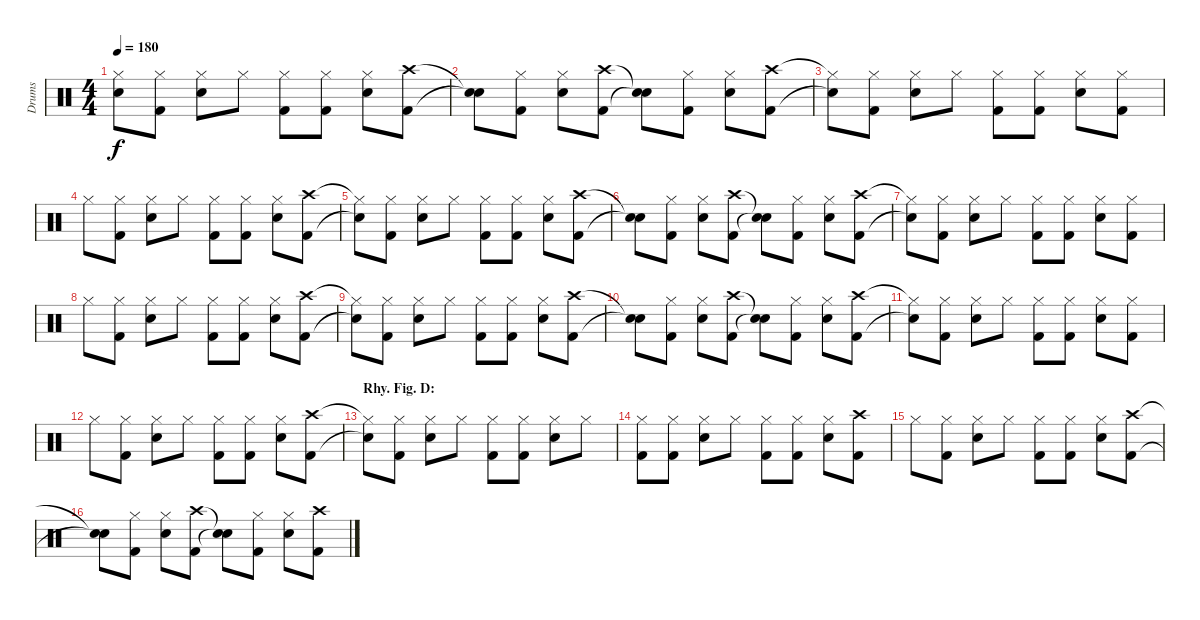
\track ("Drums" "Drums") {instrument percussion}
\staff {score}
\articulation defaults
\ts (4 4)
\tempo 180
\clef neutral
\ks c
("Hi-Hat (closed)"{t} "Snare (hit)"{t}).8{dy f} ("Hi-Hat (closed)" "Kick (hit) 2").8 ("Hi-Hat (closed)" "Snare (hit) 2").8 "Hi-Hat (closed)".8 ("Hi-Hat (closed)" "Kick (hit) 2").8 ("Hi-Hat (closed)" "Kick (hit) 2").8 ("Hi-Hat (closed)" "Snare (hit) 2").8 ("Crash high (hit)" "Kick (hit) 2").8 |
("Snare (hit)"{t} "Snare (hit)"{t}).8 ("Hi-Hat (closed)" "Kick (hit) 2").8 ("Hi-Hat (closed)" "Snare (hit) 2").8 ("Crash high (hit)" "Kick (hit) 2").8 ("Snare (hit)"{t} "Snare (hit)"{t}).8 ("Hi-Hat (closed)" "Kick (hit) 2").8 ("Hi-Hat (closed)" "Snare (hit) 2").8 ("Crash high (hit)" "Kick (hit) 2").8 |
("Hi-Hat (closed)"{t} "Snare (hit)"{t}).8 ("Hi-Hat (closed)" "Kick (hit) 2").8 ("Hi-Hat (closed)" "Snare (hit) 2").8 "Hi-Hat (closed)".8 ("Hi-Hat (closed)" "Kick (hit) 2").8 ("Hi-Hat (closed)" "Kick (hit) 2").8 ("Hi-Hat (closed)" "Snare (hit) 2").8 ("Hi-Hat (closed)" "Kick (hit) 2").8 |
"Hi-Hat (closed)".8 ("Hi-Hat (closed)" "Kick (hit) 2").8 ("Hi-Hat (closed)" "Snare (hit) 2").8 "Hi-Hat (closed)".8 ("Hi-Hat (closed)" "Kick (hit) 2").8 ("Hi-Hat (closed)" "Kick (hit) 2").8 ("Hi-Hat (closed)" "Snare (hit) 2").8 ("Crash high (hit)" "Kick (hit) 2").8 |
("Hi-Hat (closed)"{t} "Snare (hit)"{t}).8 ("Hi-Hat (closed)" "Kick (hit) 2").8 ("Hi-Hat (closed)" "Snare (hit) 2").8 "Hi-Hat (closed)".8 ("Hi-Hat (closed)" "Kick (hit) 2").8 ("Hi-Hat (closed)" "Kick (hit) 2").8 ("Hi-Hat (closed)" "Snare (hit) 2").8 ("Crash high (hit)" "Kick (hit) 2").8 |
("Snare (hit)"{t} "Snare (hit)"{t}).8 ("Hi-Hat (closed)" "Kick (hit) 2").8 ("Hi-Hat (closed)" "Snare (hit) 2").8 ("Crash high (hit)" "Kick (hit) 2").8 ("Snare (hit)"{t} "Snare (hit)"{t}).8 ("Hi-Hat (closed)" "Kick (hit) 2").8 ("Hi-Hat (closed)" "Snare (hit) 2").8 ("Crash high (hit)" "Kick (hit) 2").8 |
("Hi-Hat (closed)"{t} "Snare (hit)"{t}).8 ("Hi-Hat (closed)" "Kick (hit) 2").8 ("Hi-Hat (closed)" "Snare (hit) 2").8 "Hi-Hat (closed)".8 ("Hi-Hat (closed)" "Kick (hit) 2").8 ("Hi-Hat (closed)" "Kick (hit) 2").8 ("Hi-Hat (closed)" "Snare (hit) 2").8 ("Hi-Hat (closed)" "Kick (hit) 2").8 |
"Hi-Hat (closed)".8 ("Hi-Hat (closed)" "Kick (hit) 2").8 ("Hi-Hat (closed)" "Snare (hit) 2").8 "Hi-Hat (closed)".8 ("Hi-Hat (closed)" "Kick (hit) 2").8 ("Hi-Hat (closed)" "Kick (hit) 2").8 ("Hi-Hat (closed)" "Snare (hit) 2").8 ("Crash high (hit)" "Kick (hit) 2").8 |
("Hi-Hat (closed)"{t} "Snare (hit)"{t}).8 ("Hi-Hat (closed)" "Kick (hit) 2").8 ("Hi-Hat (closed)" "Snare (hit) 2").8 "Hi-Hat (closed)".8 ("Hi-Hat (closed)" "Kick (hit) 2").8 ("Hi-Hat (closed)" "Kick (hit) 2").8 ("Hi-Hat (closed)" "Snare (hit) 2").8 ("Crash high (hit)" "Kick (hit) 2").8 |
("Snare (hit)"{t} "Snare (hit)"{t}).8 ("Hi-Hat (closed)" "Kick (hit) 2").8 ("Hi-Hat (closed)" "Snare (hit) 2").8 ("Crash high (hit)" "Kick (hit) 2").8 ("Snare (hit)"{t} "Snare (hit)"{t}).8 ("Hi-Hat (closed)" "Kick (hit) 2").8 ("Hi-Hat (closed)" "Snare (hit) 2").8 ("Crash high (hit)" "Kick (hit) 2").8 |
("Hi-Hat (closed)"{t} "Snare (hit)"{t}).8 ("Hi-Hat (closed)" "Kick (hit) 2").8 ("Hi-Hat (closed)" "Snare (hit) 2").8 "Hi-Hat (closed)".8 ("Hi-Hat (closed)" "Kick (hit) 2").8 ("Hi-Hat (closed)" "Kick (hit) 2").8 ("Hi-Hat (closed)" "Snare (hit) 2").8 ("Hi-Hat (closed)" "Kick (hit) 2").8 |
"Hi-Hat (closed)".8 ("Hi-Hat (closed)" "Kick (hit) 2").8 ("Hi-Hat (closed)" "Snare (hit) 2").8 "Hi-Hat (closed)".8 ("Hi-Hat (closed)" "Kick (hit) 2").8 ("Hi-Hat (closed)" "Kick (hit) 2").8 ("Hi-Hat (closed)" "Snare (hit) 2").8 ("Crash high (hit)" "Kick (hit) 2").8 |
\section ("" "Rhy. Fig. D:")
("Hi-Hat (closed)"{t} "Snare (hit)"{t}).8 ("Hi-Hat (closed)" "Kick (hit) 2").8 ("Hi-Hat (closed)" "Snare (hit) 2").8 "Hi-Hat (closed)".8 ("Hi-Hat (closed)" "Kick (hit) 2").8 ("Hi-Hat (closed)" "Kick (hit) 2").8 ("Hi-Hat (closed)" "Snare (hit) 2").8 "Hi-Hat (closed)".8 |
("Hi-Hat (closed)" "Kick (hit) 2").8 ("Hi-Hat (closed)" "Kick (hit) 2").8 ("Hi-Hat (closed)" "Snare (hit) 2").8 "Hi-Hat (closed)".8 ("Hi-Hat (closed)" "Kick (hit) 2").8 ("Hi-Hat (closed)" "Kick (hit) 2").8 ("Hi-Hat (closed)" "Snare (hit) 2").8 ("Crash high (hit)" "Kick (hit) 2").8 |
"Hi-Hat (closed)".8 ("Hi-Hat (closed)" "Kick (hit) 2").8 ("Hi-Hat (closed)" "Snare (hit) 2").8 "Hi-Hat (closed)".8 ("Hi-Hat (closed)" "Kick (hit) 2").8 ("Hi-Hat (closed)" "Kick (hit) 2").8 ("Hi-Hat (closed)" "Snare (hit) 2").8 ("Crash high (hit)" "Kick (hit) 2").8 |
("Snare (hit)"{t} "Snare (hit)"{t}).8 ("Hi-Hat (closed)" "Kick (hit) 2").8 ("Hi-Hat (closed)" "Snare (hit) 2").8 ("Crash high (hit)" "Kick (hit) 2").8 ("Snare (hit)"{t} "Snare (hit)"{t}).8 ("Hi-Hat (closed)" "Kick (hit) 2").8 ("Hi-Hat (closed)" "Snare (hit) 2").8 ("Crash high (hit)" "Kick (hit) 2").8
